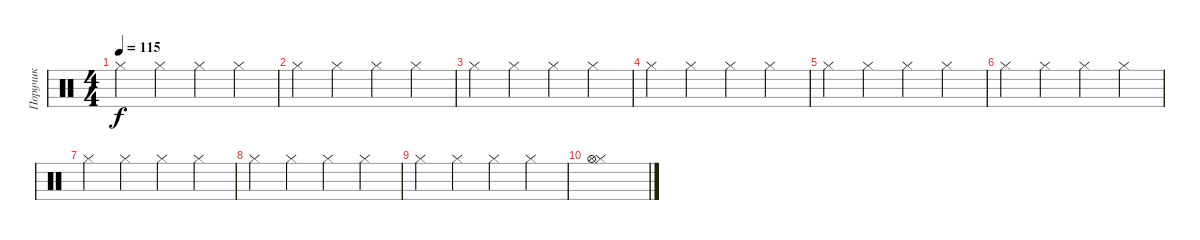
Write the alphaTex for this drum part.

\track ("Поручик" "Поручик") {instrument percussion}
\staff {score}
\articulation defaults
\ts (4 4)
\tempo 115
\clef neutral
\ks c "Hi-Hat (closed)".4{dy f} "Hi-Hat (closed)".4 "Hi-Hat (closed)".4 "Hi-Hat (closed)".4
|
"Hi-Hat (closed)".4 "Hi-Hat (closed)".4 "Hi-Hat (closed)".4 "Hi-Hat (closed)".4 |
"Hi-Hat (closed)".4 "Hi-Hat (closed)".4 "Hi-Hat (closed)".4 "Hi-Hat (closed)".4 |
"Hi-Hat (closed)".4 "Hi-Hat (closed)".4 "Hi-Hat (closed)".4 "Hi-Hat (closed)".4 |
"Hi-Hat (closed)".4 "Hi-Hat (closed)".4 "Hi-Hat (closed)".4 "Hi-Hat (closed)".4 |
"Hi-Hat (closed)".4 "Hi-Hat (closed)".4 "Hi-Hat (closed)".4 "Hi-Hat (closed)".4 |
"Hi-Hat (closed)".4 "Hi-Hat (closed)".4 "Hi-Hat (closed)".4 "Hi-Hat (closed)".4 |
"Hi-Hat (closed)".4 "Hi-Hat (closed)".4 "Hi-Hat (closed)".4 "Hi-Hat (closed)".4 |
"Hi-Hat (closed)".4 "Hi-Hat (closed)".4 "Hi-Hat (closed)".4 "Hi-Hat (closed)".4 |
("Hi-Hat (closed)" "Hi-Hat (open)").1
